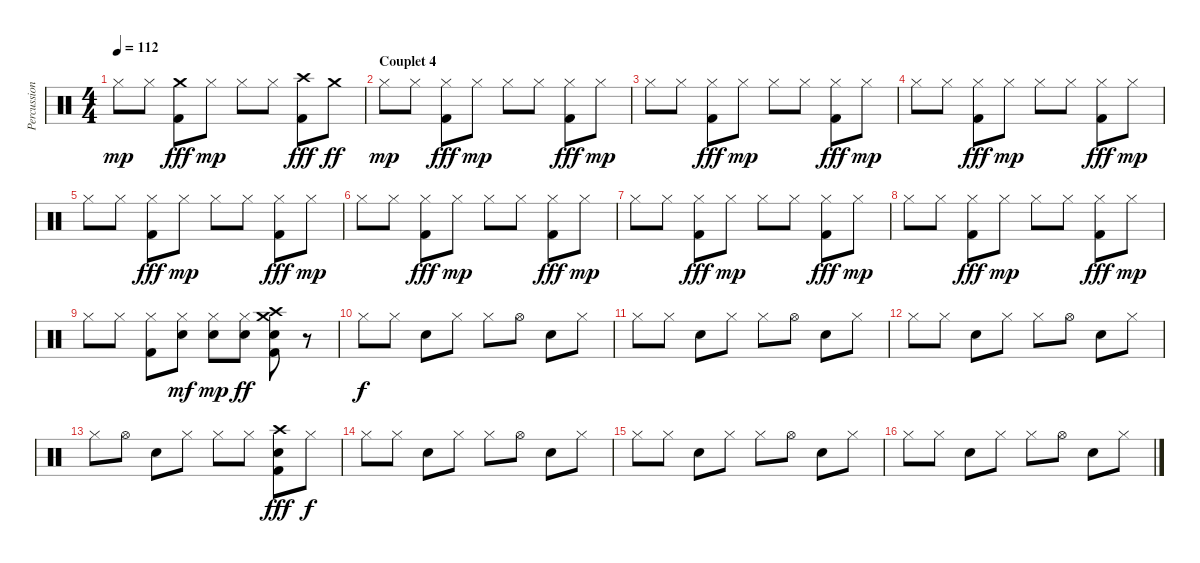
\track ("Percussions" "Percussion") {instrument percussion}
\staff {score}
\articulation defaults
\ts (4 4)
\tempo 112
\clef neutral
\ks c "Hi-Hat (closed)".8{dy mp} "Hi-Hat (closed)".8
("Crash medium (hit)" "Kick (hit) 2").8{dy fff} "Hi-Hat (closed)".8{dy mp} "Hi-Hat (closed)".8 "Hi-Hat (closed)".8 ("Crash high (hit)" "Kick (hit) 2").8{dy fff} "Crash medium (hit)".8{dy ff} |
\section ("" "Couplet 4")
"Hi-Hat (closed)".8{dy mp} "Hi-Hat (closed)".8 ("Hi-Hat (closed)" "Kick (hit) 2").8{dy fff} "Hi-Hat (closed)".8{dy mp} "Hi-Hat (closed)".8 "Hi-Hat (closed)".8 ("Hi-Hat (closed)" "Kick (hit) 2").8{dy fff} "Hi-Hat (closed)".8{dy mp} |
"Hi-Hat (closed)".8 "Hi-Hat (closed)".8 ("Hi-Hat (closed)" "Kick (hit) 2").8{dy fff} "Hi-Hat (closed)".8{dy mp} "Hi-Hat (closed)".8 "Hi-Hat (closed)".8 ("Hi-Hat (closed)" "Kick (hit) 2").8{dy fff} "Hi-Hat (closed)".8{dy mp} |
"Hi-Hat (closed)".8 "Hi-Hat (closed)".8 ("Hi-Hat (closed)" "Kick (hit) 2").8{dy fff} "Hi-Hat (closed)".8{dy mp} "Hi-Hat (closed)".8 "Hi-Hat (closed)".8 ("Hi-Hat (closed)" "Kick (hit) 2").8{dy fff} "Hi-Hat (closed)".8{dy mp} |
"Hi-Hat (closed)".8 "Hi-Hat (closed)".8 ("Hi-Hat (closed)" "Kick (hit) 2").8{dy fff} "Hi-Hat (closed)".8{dy mp} "Hi-Hat (closed)".8 "Hi-Hat (closed)".8 ("Hi-Hat (closed)" "Kick (hit) 2").8{dy fff} "Hi-Hat (closed)".8{dy mp} |
"Hi-Hat (closed)".8 "Hi-Hat (closed)".8 ("Hi-Hat (closed)" "Kick (hit) 2").8{dy fff} "Hi-Hat (closed)".8{dy mp} "Hi-Hat (closed)".8 "Hi-Hat (closed)".8 ("Hi-Hat (closed)" "Kick (hit) 2").8{dy fff} "Hi-Hat (closed)".8{dy mp} |
"Hi-Hat (closed)".8 "Hi-Hat (closed)".8 ("Hi-Hat (closed)" "Kick (hit) 2").8{dy fff} "Hi-Hat (closed)".8{dy mp} "Hi-Hat (closed)".8 "Hi-Hat (closed)".8 ("Hi-Hat (closed)" "Kick (hit) 2").8{dy fff} "Hi-Hat (closed)".8{dy mp} |
"Hi-Hat (closed)".8 "Hi-Hat (closed)".8 ("Hi-Hat (closed)" "Kick (hit) 2").8{dy fff} "Hi-Hat (closed)".8{dy mp} "Hi-Hat (closed)".8 "Hi-Hat (closed)".8 ("Hi-Hat (closed)" "Kick (hit) 2").8{dy fff} "Hi-Hat (closed)".8{dy mp} |
"Hi-Hat (closed)".8 "Hi-Hat (closed)".8 ("Hi-Hat (closed)" "Kick (hit) 2").8 ("Hi-Hat (closed)" "Electric Snare (hit)").8{dy mf} ("Hi-Hat (closed)" "Electric Snare (hit)").8{dy mp} ("Hi-Hat (closed)" "Electric Snare (hit)").8{dy ff} ("Crash high (hit)" "Crash medium (hit)" "Electric Snare (hit)" "Kick (hit) 2").8 r.8 |
"Hi-Hat (closed)".8{dy f} "Hi-Hat (closed)".8 "Electric Snare (hit)".8 "Hi-Hat (closed)".8 "Hi-Hat (closed)".8 "Hi-Hat (open)".8 "Electric Snare (hit)".8 "Hi-Hat (closed)".8 |
"Hi-Hat (closed)".8 "Hi-Hat (closed)".8 "Electric Snare (hit)".8 "Hi-Hat (closed)".8 "Hi-Hat (closed)".8 "Hi-Hat (open)".8 "Electric Snare (hit)".8 "Hi-Hat (closed)".8 |
"Hi-Hat (closed)".8 "Hi-Hat (closed)".8 "Electric Snare (hit)".8 "Hi-Hat (closed)".8 "Hi-Hat (closed)".8 "Hi-Hat (open)".8 "Electric Snare (hit)".8 "Hi-Hat (closed)".8 |
"Hi-Hat (closed)".8 "Hi-Hat (open)".8 "Electric Snare (hit)".8 "Hi-Hat (closed)".8 "Hi-Hat (closed)".8 "Hi-Hat (closed)".8 ("Crash high (hit)" "Electric Snare (hit)" "Kick (hit) 2").8{dy fff} "Hi-Hat (closed)".8{dy f} |
"Hi-Hat (closed)".8 "Hi-Hat (closed)".8 "Electric Snare (hit)".8 "Hi-Hat (closed)".8 "Hi-Hat (closed)".8 "Hi-Hat (open)".8 "Electric Snare (hit)".8 "Hi-Hat (closed)".8 |
"Hi-Hat (closed)".8 "Hi-Hat (closed)".8 "Electric Snare (hit)".8 "Hi-Hat (closed)".8 "Hi-Hat (closed)".8 "Hi-Hat (open)".8 "Electric Snare (hit)".8 "Hi-Hat (closed)".8 |
"Hi-Hat (closed)".8 "Hi-Hat (closed)".8 "Electric Snare (hit)".8 "Hi-Hat (closed)".8 "Hi-Hat (closed)".8 "Hi-Hat (open)".8 "Electric Snare (hit)".8 "Hi-Hat (closed)".8
